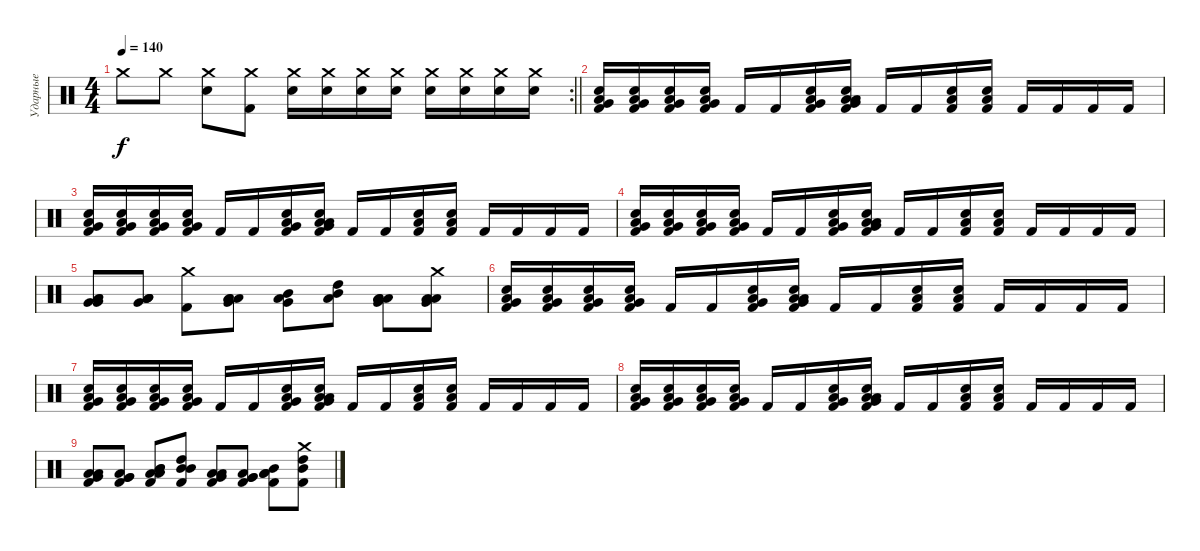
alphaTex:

\track ("Ударные" "Ударные") {instrument percussion}
\staff {score}
\articulation defaults
\rc 2
\ts (4 4)
\tempo 140
\clef neutral
\barLineRight lightlight
\ks c "Crash medium (hit)".8{dy f} "Crash medium (hit)".8
("Crash medium (hit)" "Snare (hit) 2").8 ("Crash medium (hit)" "Kick (hit) 2").8 ("Crash medium (hit)" "Snare (hit) 2").16 ("Crash medium (hit)" "Snare (hit) 2").16 ("Crash medium (hit)" "Snare (hit) 2").16 ("Crash medium (hit)" "Snare (hit) 2").16 ("Crash medium (hit)" "Snare (hit) 2").16 ("Crash medium (hit)" "Snare (hit) 2").16 ("Crash medium (hit)" "Snare (hit) 2").16 ("Crash medium (hit)" "Snare (hit) 2").16 |
("Kick (hit) 2" "Low Floor Tom (hit)" "Very Low Tom (hit)" "Snare (hit) 2").16 ("Kick (hit) 2" "Low Floor Tom (hit)" "Very Low Tom (hit)" "Snare (hit) 2").16 ("Kick (hit) 2" "Low Floor Tom (hit)" "Very Low Tom (hit)" "Snare (hit) 2").16 ("Kick (hit) 2" "Very Low Tom (hit)" "Low Floor Tom (hit)" "Snare (hit) 2").16 "Kick (hit) 2".16 "Kick (hit) 2".16 ("Kick (hit) 2" "Low Floor Tom (hit)" "Very Low Tom (hit)" "Snare (hit) 2").16 ("Kick (hit) 2" "Low Floor Tom (hit)" "Very Low Tom (hit)" "Low Tom (hit)" "Snare (hit) 2").16 "Kick (hit) 2".16 "Kick (hit) 2".16 ("Kick (hit) 2" "Low Floor Tom (hit)" "Snare (hit) 2").16 ("Kick (hit) 2" "Low Floor Tom (hit)" "Snare (hit) 2").16 "Kick (hit) 2".16 "Kick (hit) 2".16 "Kick (hit) 2".16 "Kick (hit) 2".16 |
("Kick (hit) 2" "Low Floor Tom (hit)" "Very Low Tom (hit)" "Snare (hit) 2").16 ("Kick (hit) 2" "Low Floor Tom (hit)" "Very Low Tom (hit)" "Snare (hit) 2").16 ("Kick (hit) 2" "Low Floor Tom (hit)" "Very Low Tom (hit)" "Snare (hit) 2").16 ("Kick (hit) 2" "Very Low Tom (hit)" "Low Floor Tom (hit)" "Snare (hit) 2").16 "Kick (hit) 2".16 "Kick (hit) 2".16 ("Kick (hit) 2" "Low Floor Tom (hit)" "Very Low Tom (hit)" "Snare (hit) 2").16 ("Kick (hit) 2" "Low Floor Tom (hit)" "Very Low Tom (hit)" "Low Tom (hit)" "Snare (hit) 2").16 "Kick (hit) 2".16 "Kick (hit) 2".16 ("Kick (hit) 2" "Low Floor Tom (hit)" "Snare (hit) 2").16 ("Kick (hit) 2" "Low Floor Tom (hit)" "Snare (hit) 2").16 "Kick (hit) 2".16 "Kick (hit) 2".16 "Kick (hit) 2".16 "Kick (hit) 2".16 |
("Kick (hit) 2" "Low Floor Tom (hit)" "Very Low Tom (hit)" "Snare (hit) 2").16 ("Kick (hit) 2" "Low Floor Tom (hit)" "Very Low Tom (hit)" "Snare (hit) 2").16 ("Kick (hit) 2" "Low Floor Tom (hit)" "Very Low Tom (hit)" "Snare (hit) 2").16 ("Kick (hit) 2" "Very Low Tom (hit)" "Low Floor Tom (hit)" "Snare (hit) 2").16 "Kick (hit) 2".16 "Kick (hit) 2".16 ("Kick (hit) 2" "Low Floor Tom (hit)" "Very Low Tom (hit)" "Snare (hit) 2").16 ("Kick (hit) 2" "Low Floor Tom (hit)" "Very Low Tom (hit)" "Low Tom (hit)" "Snare (hit) 2").16 "Kick (hit) 2".16 "Kick (hit) 2".16 ("Kick (hit) 2" "Low Floor Tom (hit)" "Snare (hit) 2").16 ("Kick (hit) 2" "Low Floor Tom (hit)" "Snare (hit) 2").16 "Kick (hit) 2".16 "Kick (hit) 2".16 "Kick (hit) 2".16 "Kick (hit) 2".16 |
("Low Floor Tom (hit)" "Very Low Tom (hit)" "Very Low Tom (hit)" "Low Tom (hit)").8 ("Low Floor Tom (hit)" "Low Tom (hit)" "Low Floor Tom (hit)" "Very Low Tom (hit)").8 ("Kick (hit) 2" "Crash medium (hit)").8 ("Low Floor Tom (hit)" "Very Low Tom (hit)" "Low Tom (hit)" "Low Floor Tom (hit)").8 ("Very Low Tom (hit)" "Low Tom (hit)" "Mid Tom (hit)").8 ("Low Tom (hit)" "Mid Tom (hit)" "High Tom (hit)").8 ("Low Tom (hit)" "Low Floor Tom (hit)" "Low Tom (hit)" "Very Low Tom (hit)").8 ("Very Low Tom (hit)" "Low Tom (hit)" "Low Tom (hit)" "Crash medium (hit)").8 |
("Kick (hit) 2" "Low Floor Tom (hit)" "Very Low Tom (hit)" "Snare (hit) 2").16 ("Kick (hit) 2" "Low Floor Tom (hit)" "Very Low Tom (hit)" "Snare (hit) 2").16 ("Kick (hit) 2" "Low Floor Tom (hit)" "Very Low Tom (hit)" "Snare (hit) 2").16 ("Kick (hit) 2" "Very Low Tom (hit)" "Low Floor Tom (hit)" "Snare (hit) 2").16 "Kick (hit) 2".16 "Kick (hit) 2".16 ("Kick (hit) 2" "Low Floor Tom (hit)" "Very Low Tom (hit)" "Snare (hit) 2").16 ("Kick (hit) 2" "Low Floor Tom (hit)" "Very Low Tom (hit)" "Low Tom (hit)" "Snare (hit) 2").16 "Kick (hit) 2".16 "Kick (hit) 2".16 ("Kick (hit) 2" "Low Floor Tom (hit)" "Snare (hit) 2").16 ("Kick (hit) 2" "Low Floor Tom (hit)" "Snare (hit) 2").16 "Kick (hit) 2".16 "Kick (hit) 2".16 "Kick (hit) 2".16 "Kick (hit) 2".16 |
("Kick (hit) 2" "Low Floor Tom (hit)" "Very Low Tom (hit)" "Snare (hit) 2").16 ("Kick (hit) 2" "Low Floor Tom (hit)" "Very Low Tom (hit)" "Snare (hit) 2").16 ("Kick (hit) 2" "Low Floor Tom (hit)" "Very Low Tom (hit)" "Snare (hit) 2").16 ("Kick (hit) 2" "Very Low Tom (hit)" "Low Floor Tom (hit)" "Snare (hit) 2").16 "Kick (hit) 2".16 "Kick (hit) 2".16 ("Kick (hit) 2" "Low Floor Tom (hit)" "Very Low Tom (hit)" "Snare (hit) 2").16 ("Kick (hit) 2" "Low Floor Tom (hit)" "Very Low Tom (hit)" "Low Tom (hit)" "Snare (hit) 2").16 "Kick (hit) 2".16 "Kick (hit) 2".16 ("Kick (hit) 2" "Low Floor Tom (hit)" "Snare (hit) 2").16 ("Kick (hit) 2" "Low Floor Tom (hit)" "Snare (hit) 2").16 "Kick (hit) 2".16 "Kick (hit) 2".16 "Kick (hit) 2".16 "Kick (hit) 2".16 |
("Kick (hit) 2" "Low Floor Tom (hit)" "Very Low Tom (hit)" "Snare (hit) 2").16 ("Kick (hit) 2" "Low Floor Tom (hit)" "Very Low Tom (hit)" "Snare (hit) 2").16 ("Kick (hit) 2" "Low Floor Tom (hit)" "Very Low Tom (hit)" "Snare (hit) 2").16 ("Kick (hit) 2" "Very Low Tom (hit)" "Low Floor Tom (hit)" "Snare (hit) 2").16 "Kick (hit) 2".16 "Kick (hit) 2".16 ("Kick (hit) 2" "Low Floor Tom (hit)" "Very Low Tom (hit)" "Snare (hit) 2").16 ("Kick (hit) 2" "Low Floor Tom (hit)" "Very Low Tom (hit)" "Low Tom (hit)" "Snare (hit) 2").16 "Kick (hit) 2".16 "Kick (hit) 2".16 ("Kick (hit) 2" "Low Floor Tom (hit)" "Snare (hit) 2").16 ("Kick (hit) 2" "Low Floor Tom (hit)" "Snare (hit) 2").16 "Kick (hit) 2".16 "Kick (hit) 2".16 "Kick (hit) 2".16 "Kick (hit) 2".16 |
("Kick (hit) 2" "Low Floor Tom (hit)" "Very Low Tom (hit)" "Low Floor Tom (hit)").8 ("Kick (hit) 2" "Very Low Tom (hit)" "Low Tom (hit)" "Very Low Tom (hit)").8 ("Kick (hit) 2" "Low Tom (hit)" "Mid Tom (hit)" "Low Tom (hit)" "Mid Tom (hit)").8 ("Kick (hit) 2" "Mid Tom (hit)" "High Tom (hit)" "Mid Tom (hit)").8 ("Kick (hit) 2" "Low Floor Tom (hit)" "Very Low Tom (hit)" "Low Floor Tom (hit)").8 ("Kick (hit) 2" "Very Low Tom (hit)" "Low Tom (hit)" "Very Low Tom (hit)").8 ("Kick (hit) 2" "Low Tom (hit)" "Mid Tom (hit)" "Low Tom (hit)").8 ("Kick (hit) 2" "Mid Tom (hit)" "High Tom (hit)" "Crash medium (hit)").8
